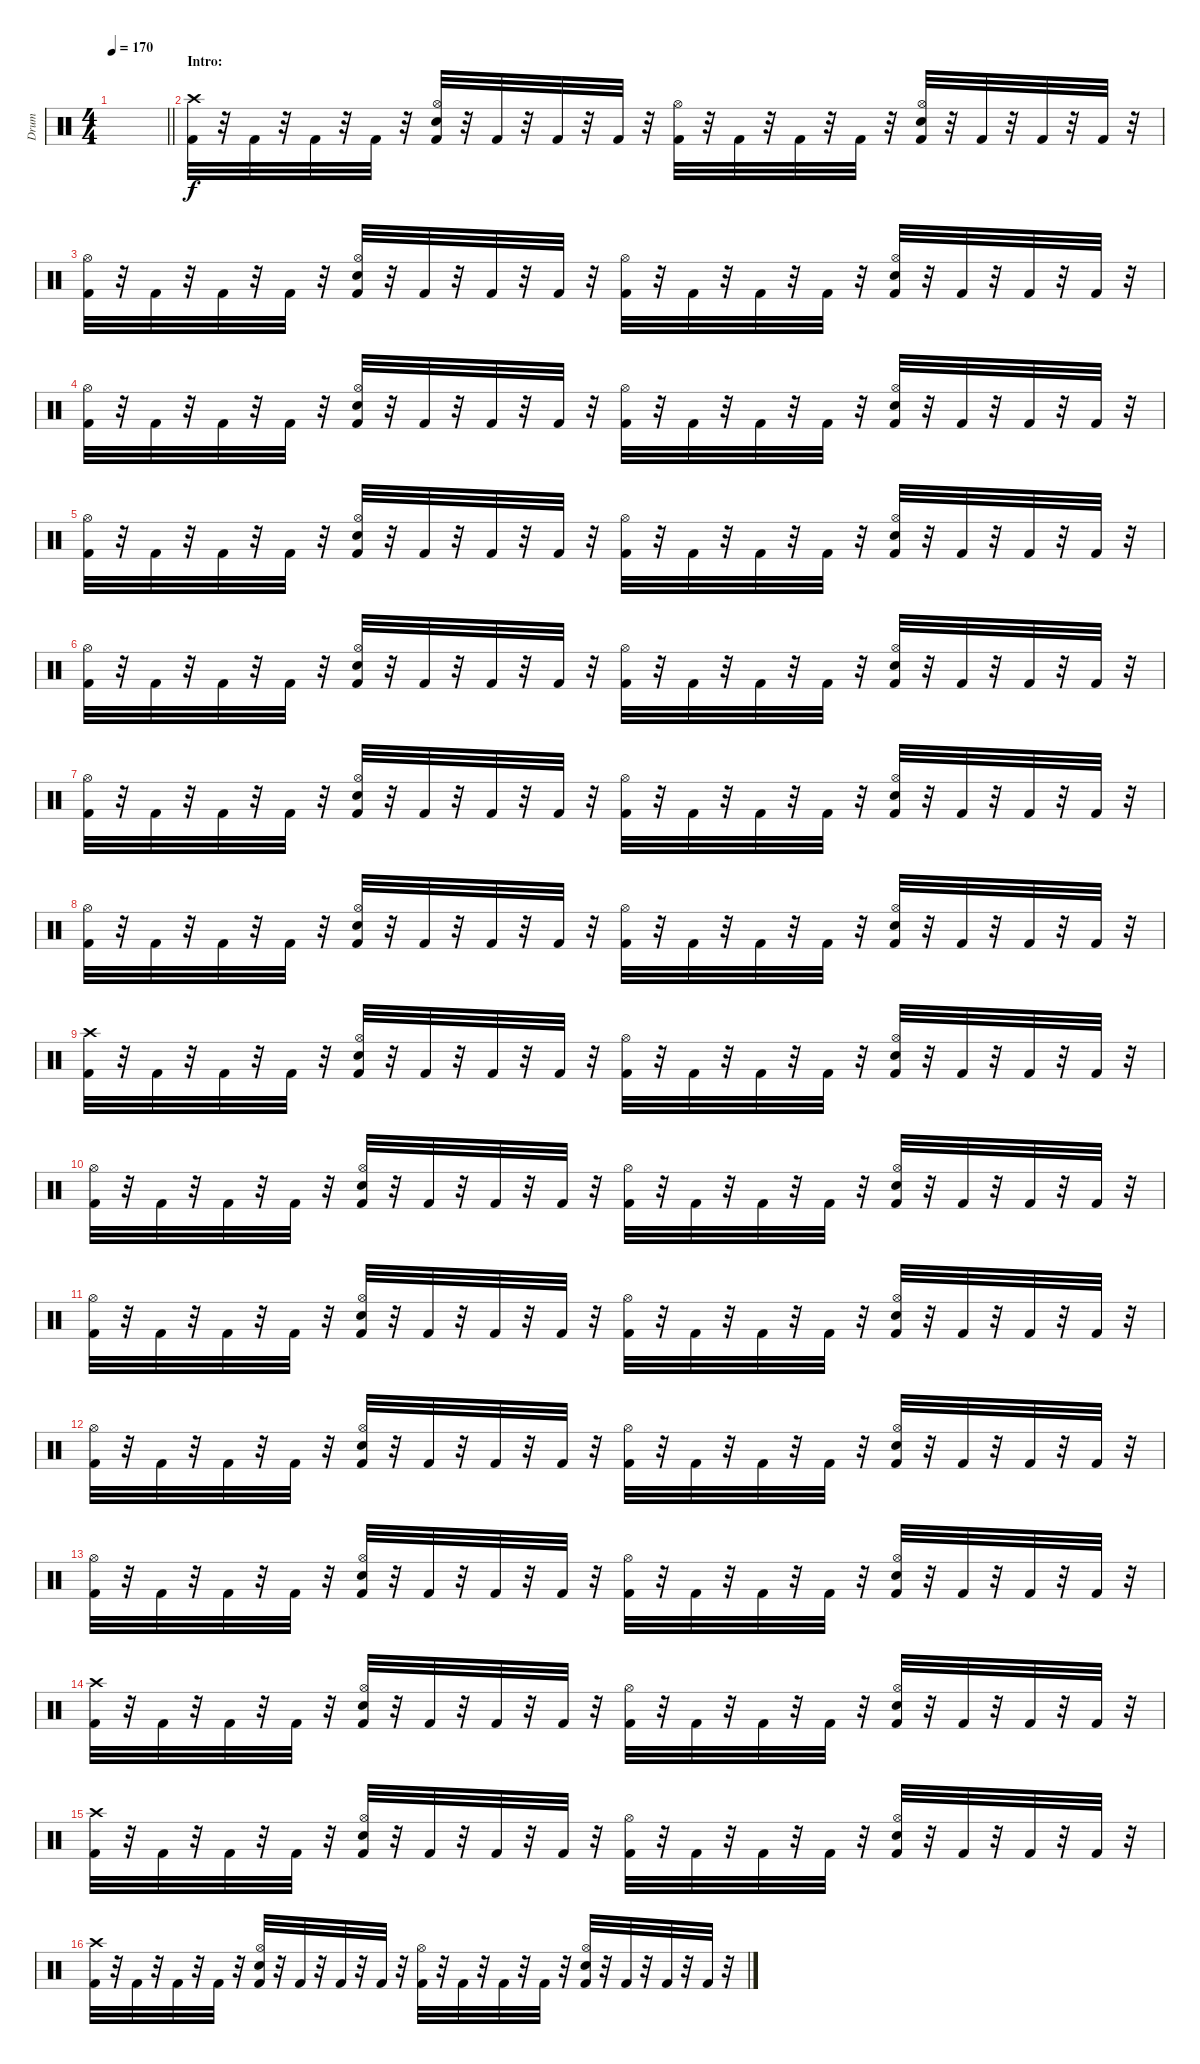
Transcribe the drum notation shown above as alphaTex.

\track ("Drum" "Drum") {instrument percussion}
\staff {score}
\articulation defaults
\ts (4 4)
\tempo 170
\clef neutral
\barLineRight lightlight
\ks c
|
\section ("" "Intro:")
("Crash high (hit)" "Kick (hit) 2").32 r.32 "Kick (hit) 2".32 r.32 "Kick (hit) 2".32 r.32 "Kick (hit) 2".32 r.32 ("Hi-Hat (open)" "Snare (hit) 2" "Kick (hit) 2").32 r.32 "Kick (hit) 2".32 r.32 "Kick (hit) 2".32 r.32 "Kick (hit) 2".32 r.32 ("Hi-Hat (open)" "Kick (hit) 2").32 r.32 "Kick (hit) 2".32 r.32 "Kick (hit) 2".32 r.32 "Kick (hit) 2".32 r.32 ("Hi-Hat (open)" "Snare (hit) 2" "Kick (hit) 2").32 r.32 "Kick (hit) 2".32 r.32 "Kick (hit) 2".32 r.32 "Kick (hit) 2".32 r.32 |
("Hi-Hat (open)" "Kick (hit) 2").32 r.32 "Kick (hit) 2".32 r.32 "Kick (hit) 2".32 r.32 "Kick (hit) 2".32 r.32 ("Hi-Hat (open)" "Snare (hit) 2" "Kick (hit) 2").32 r.32 "Kick (hit) 2".32 r.32 "Kick (hit) 2".32 r.32 "Kick (hit) 2".32 r.32 ("Hi-Hat (open)" "Kick (hit) 2").32 r.32 "Kick (hit) 2".32 r.32 "Kick (hit) 2".32 r.32 "Kick (hit) 2".32 r.32 ("Hi-Hat (open)" "Snare (hit) 2" "Kick (hit) 2").32 r.32 "Kick (hit) 2".32 r.32 "Kick (hit) 2".32 r.32 "Kick (hit) 2".32 r.32 |
("Hi-Hat (open)" "Kick (hit) 2").32 r.32 "Kick (hit) 2".32 r.32 "Kick (hit) 2".32 r.32 "Kick (hit) 2".32 r.32 ("Hi-Hat (open)" "Snare (hit) 2" "Kick (hit) 2").32 r.32 "Kick (hit) 2".32 r.32 "Kick (hit) 2".32 r.32 "Kick (hit) 2".32 r.32 ("Hi-Hat (open)" "Kick (hit) 2").32 r.32 "Kick (hit) 2".32 r.32 "Kick (hit) 2".32 r.32 "Kick (hit) 2".32 r.32 ("Snare (hit) 2" "Hi-Hat (open)" "Kick (hit) 2").32 r.32 "Kick (hit) 2".32 r.32 "Kick (hit) 2".32 r.32 "Kick (hit) 2".32 r.32 |
("Hi-Hat (open)" "Kick (hit) 2").32 r.32 "Kick (hit) 2".32 r.32 "Kick (hit) 2".32 r.32 "Kick (hit) 2".32 r.32 ("Hi-Hat (open)" "Snare (hit) 2" "Kick (hit) 2").32 r.32 "Kick (hit) 2".32 r.32 "Kick (hit) 2".32 r.32 "Kick (hit) 2".32 r.32 ("Hi-Hat (open)" "Kick (hit) 2").32 r.32 "Kick (hit) 2".32 r.32 "Kick (hit) 2".32 r.32 "Kick (hit) 2".32 r.32 ("Snare (hit) 2" "Hi-Hat (open)" "Kick (hit) 2").32 r.32 "Kick (hit) 2".32 r.32 "Kick (hit) 2".32 r.32 "Kick (hit) 2".32 r.32 |
("Hi-Hat (open)" "Kick (hit) 2").32 r.32 "Kick (hit) 2".32 r.32 "Kick (hit) 2".32 r.32 "Kick (hit) 2".32 r.32 ("Kick (hit) 2" "Snare (hit) 2" "Hi-Hat (open)").32 r.32 "Kick (hit) 2".32 r.32 "Kick (hit) 2".32 r.32 "Kick (hit) 2".32 r.32 ("Kick (hit) 2" "Hi-Hat (open)").32 r.32 "Kick (hit) 2".32 r.32 "Kick (hit) 2".32 r.32 "Kick (hit) 2".32 r.32 ("Kick (hit) 2" "Snare (hit) 2" "Hi-Hat (open)").32 r.32 "Kick (hit) 2".32 r.32 "Kick (hit) 2".32 r.32 "Kick (hit) 2".32 r.32 |
("Kick (hit) 2" "Hi-Hat (open)").32 r.32 "Kick (hit) 2".32 r.32 "Kick (hit) 2".32 r.32 "Kick (hit) 2".32 r.32 ("Kick (hit) 2" "Snare (hit) 2" "Hi-Hat (open)").32 r.32 "Kick (hit) 2".32 r.32 "Kick (hit) 2".32 r.32 "Kick (hit) 2".32 r.32 ("Kick (hit) 2" "Hi-Hat (open)").32 r.32 "Kick (hit) 2".32 r.32 "Kick (hit) 2".32 r.32 "Kick (hit) 2".32 r.32 ("Kick (hit) 2" "Snare (hit) 2" "Hi-Hat (open)").32 r.32 "Kick (hit) 2".32 r.32 "Kick (hit) 2".32 r.32 "Kick (hit) 2".32 r.32 |
("Kick (hit) 2" "Hi-Hat (open)").32 r.32 "Kick (hit) 2".32 r.32 "Kick (hit) 2".32 r.32 "Kick (hit) 2".32 r.32 ("Kick (hit) 2" "Snare (hit) 2" "Hi-Hat (open)").32 r.32 "Kick (hit) 2".32 r.32 "Kick (hit) 2".32 r.32 "Kick (hit) 2".32 r.32 ("Kick (hit) 2" "Hi-Hat (open)").32 r.32 "Kick (hit) 2".32 r.32 "Kick (hit) 2".32 r.32 "Kick (hit) 2".32 r.32 ("Kick (hit) 2" "Hi-Hat (open)" "Snare (hit) 2").32 r.32 "Kick (hit) 2".32 r.32 "Kick (hit) 2".32 r.32 "Kick (hit) 2".32 r.32 |
("Crash high (hit)" "Kick (hit) 2").32 r.32 "Kick (hit) 2".32 r.32 "Kick (hit) 2".32 r.32 "Kick (hit) 2".32 r.32 ("Kick (hit) 2" "Snare (hit) 2" "Hi-Hat (open)").32 r.32 "Kick (hit) 2".32 r.32 "Kick (hit) 2".32 r.32 "Kick (hit) 2".32 r.32 ("Kick (hit) 2" "Hi-Hat (open)").32 r.32 "Kick (hit) 2".32 r.32 "Kick (hit) 2".32 r.32 "Kick (hit) 2".32 r.32 ("Snare (hit) 2" "Kick (hit) 2" "Hi-Hat (open)").32 r.32 "Kick (hit) 2".32 r.32 "Kick (hit) 2".32 r.32 "Kick (hit) 2".32 r.32 |
("Hi-Hat (open)" "Kick (hit) 2").32 r.32 "Kick (hit) 2".32 r.32 "Kick (hit) 2".32 r.32 "Kick (hit) 2".32 r.32 ("Kick (hit) 2" "Snare (hit) 2" "Hi-Hat (open)").32 r.32 "Kick (hit) 2".32 r.32 "Kick (hit) 2".32 r.32 "Kick (hit) 2".32 r.32 ("Kick (hit) 2" "Hi-Hat (open)").32 r.32 "Kick (hit) 2".32 r.32 "Kick (hit) 2".32 r.32 "Kick (hit) 2".32 r.32 ("Kick (hit) 2" "Snare (hit) 2" "Hi-Hat (open)").32 r.32 "Kick (hit) 2".32 r.32 "Kick (hit) 2".32 r.32 "Kick (hit) 2".32 r.32 |
("Kick (hit) 2" "Hi-Hat (open)").32 r.32 "Kick (hit) 2".32 r.32 "Kick (hit) 2".32 r.32 "Kick (hit) 2".32 r.32 ("Kick (hit) 2" "Snare (hit) 2" "Hi-Hat (open)").32 r.32 "Kick (hit) 2".32 r.32 "Kick (hit) 2".32 r.32 "Kick (hit) 2".32 r.32 ("Kick (hit) 2" "Hi-Hat (open)").32 r.32 "Kick (hit) 2".32 r.32 "Kick (hit) 2".32 r.32 "Kick (hit) 2".32 r.32 ("Kick (hit) 2" "Snare (hit) 2" "Hi-Hat (open)").32 r.32 "Kick (hit) 2".32 r.32 "Kick (hit) 2".32 r.32 "Kick (hit) 2".32 r.32 |
("Kick (hit) 2" "Hi-Hat (open)").32 r.32 "Kick (hit) 2".32 r.32 "Kick (hit) 2".32 r.32 "Kick (hit) 2".32 r.32 ("Kick (hit) 2" "Snare (hit) 2" "Hi-Hat (open)").32 r.32 "Kick (hit) 2".32 r.32 "Kick (hit) 2".32 r.32 "Kick (hit) 2".32 r.32 ("Kick (hit) 2" "Hi-Hat (open)").32 r.32 "Kick (hit) 2".32 r.32 "Kick (hit) 2".32 r.32 "Kick (hit) 2".32 r.32 ("Kick (hit) 2" "Hi-Hat (open)" "Snare (hit) 2").32 r.32 "Kick (hit) 2".32 r.32 "Kick (hit) 2".32 r.32 "Kick (hit) 2".32 r.32 |
("Kick (hit) 2" "Hi-Hat (open)").32 r.32 "Kick (hit) 2".32 r.32 "Kick (hit) 2".32 r.32 "Kick (hit) 2".32 r.32 ("Kick (hit) 2" "Snare (hit) 2" "Hi-Hat (open)").32 r.32 "Kick (hit) 2".32 r.32 "Kick (hit) 2".32 r.32 "Kick (hit) 2".32 r.32 ("Kick (hit) 2" "Hi-Hat (open)").32 r.32 "Kick (hit) 2".32 r.32 "Kick (hit) 2".32 r.32 "Kick (hit) 2".32 r.32 ("Kick (hit) 2" "Hi-Hat (open)" "Snare (hit) 2").32 r.32 "Kick (hit) 2".32 r.32 "Kick (hit) 2".32 r.32 "Kick (hit) 2".32 r.32 |
("Crash high (hit)" "Kick (hit) 2").32 r.32 "Kick (hit) 2".32 r.32 "Kick (hit) 2".32 r.32 "Kick (hit) 2".32 r.32 ("Hi-Hat (open)" "Snare (hit) 2" "Kick (hit) 2").32 r.32 "Kick (hit) 2".32 r.32 "Kick (hit) 2".32 r.32 "Kick (hit) 2".32 r.32 ("Hi-Hat (open)" "Kick (hit) 2").32 r.32 "Kick (hit) 2".32 r.32 "Kick (hit) 2".32 r.32 "Kick (hit) 2".32 r.32 ("Hi-Hat (open)" "Snare (hit) 2" "Kick (hit) 2").32 r.32 "Kick (hit) 2".32 r.32 "Kick (hit) 2".32 r.32 "Kick (hit) 2".32 r.32 |
("Crash high (hit)" "Kick (hit) 2").32 r.32 "Kick (hit) 2".32 r.32 "Kick (hit) 2".32 r.32 "Kick (hit) 2".32 r.32 ("Hi-Hat (open)" "Snare (hit) 2" "Kick (hit) 2").32 r.32 "Kick (hit) 2".32 r.32 "Kick (hit) 2".32 r.32 "Kick (hit) 2".32 r.32 ("Hi-Hat (open)" "Kick (hit) 2").32 r.32 "Kick (hit) 2".32 r.32 "Kick (hit) 2".32 r.32 "Kick (hit) 2".32 r.32 ("Hi-Hat (open)" "Snare (hit) 2" "Kick (hit) 2").32 r.32 "Kick (hit) 2".32 r.32 "Kick (hit) 2".32 r.32 "Kick (hit) 2".32 r.32 |
("Crash high (hit)" "Kick (hit) 2").32 r.32 "Kick (hit) 2".32 r.32 "Kick (hit) 2".32 r.32 "Kick (hit) 2".32 r.32 ("Hi-Hat (open)" "Snare (hit) 2" "Kick (hit) 2").32 r.32 "Kick (hit) 2".32 r.32 "Kick (hit) 2".32 r.32 "Kick (hit) 2".32 r.32 ("Hi-Hat (open)" "Kick (hit) 2").32 r.32 "Kick (hit) 2".32 r.32 "Kick (hit) 2".32 r.32 "Kick (hit) 2".32 r.32 ("Snare (hit) 2" "Hi-Hat (open)" "Kick (hit) 2").32 r.32 "Kick (hit) 2".32 r.32 "Kick (hit) 2".32 r.32 "Kick (hit) 2".32 r.32
